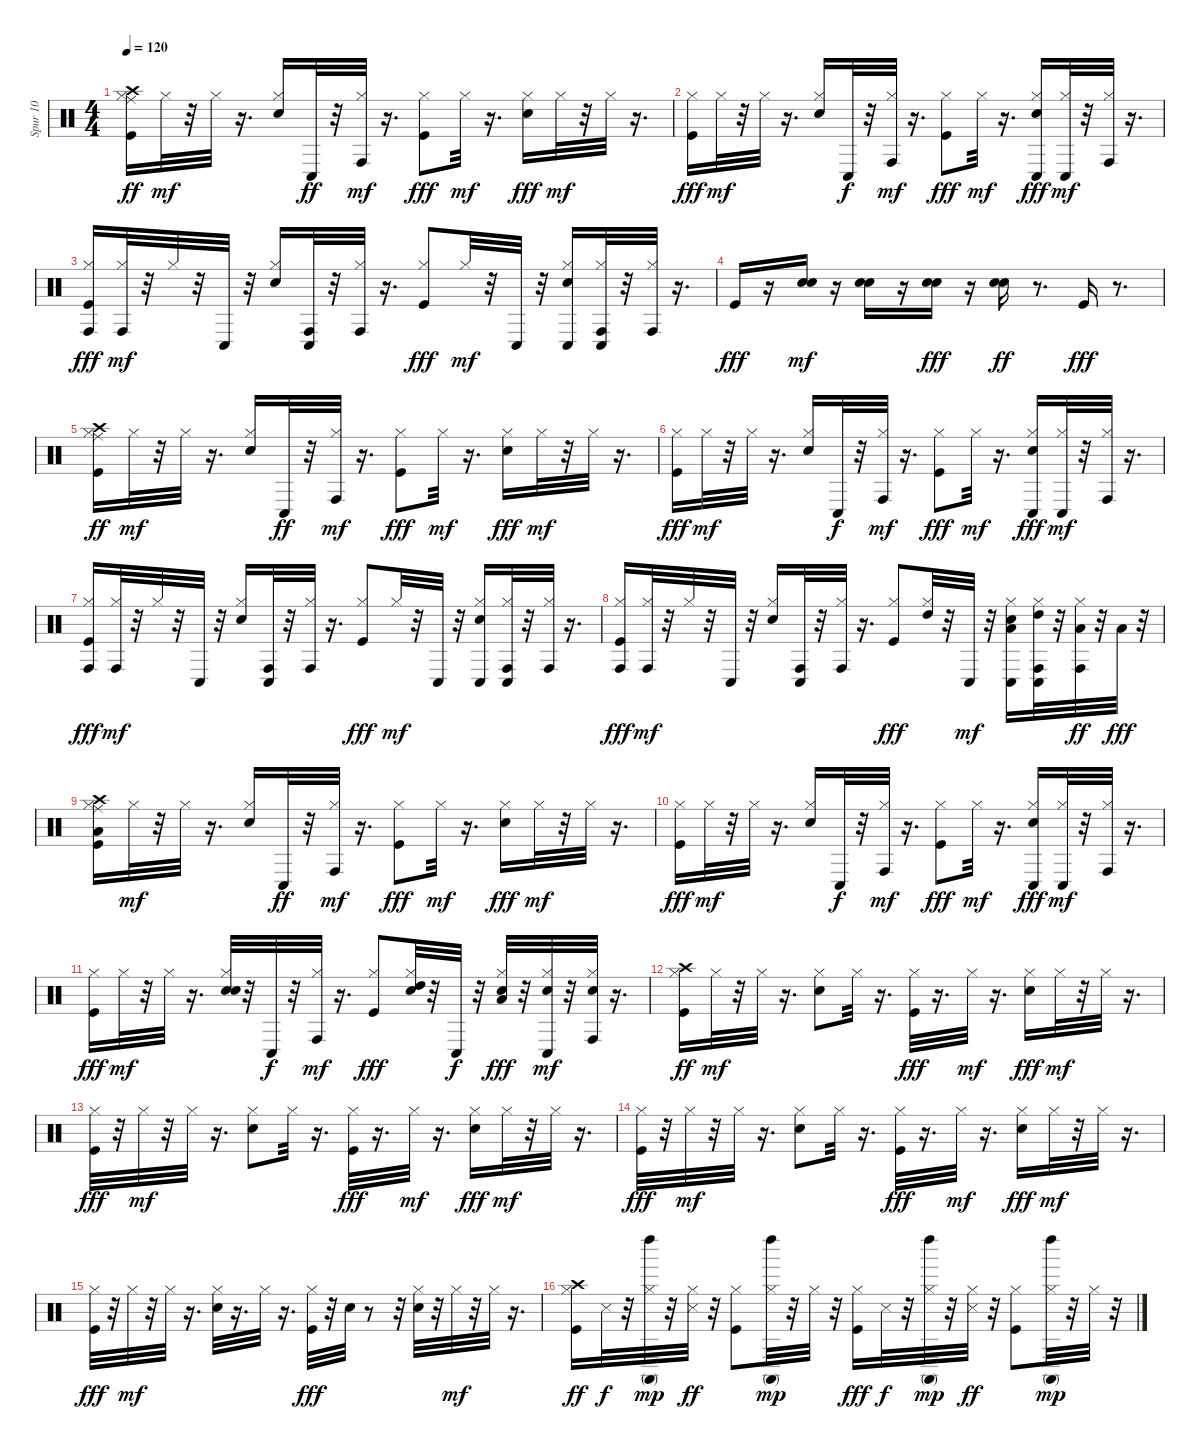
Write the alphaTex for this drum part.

\track ("Spur 10" "Spur 10") {instrument percussion}
\staff {score}
\articulation defaults
\ts (4 4)
\tempo 120
\clef neutral
\ks c
("Kick (hit)" "Hi-Hat (closed)" "Ride (middle)" "Crash high (hit)").16{dy ff} "Hi-Hat (closed)".32{dy mf} r.32 "Hi-Hat (closed)".32 r.16{d} ("Snare (hit) 2" "Hi-Hat (closed)").16 "Conga low (hit)".32{dy ff} r.32 ("Hi-Hat (closed)" "Conga high (hit)").32{dy mf} r.16{d} ("Kick (hit)" "Hi-Hat (closed)").8{dy fff} "Hi-Hat (closed)".32{dy mf} r.16{d} ("Snare (hit) 2" "Hi-Hat (closed)").16{dy fff} "Hi-Hat (closed)".32{dy mf} r.32 "Hi-Hat (closed)".32 r.16{d} |
("Kick (hit)" "Hi-Hat (closed)").16{dy fff} "Hi-Hat (closed)".32{dy mf} r.32 "Hi-Hat (closed)".32 r.16{d} ("Snare (hit) 2" "Hi-Hat (closed)").16 "Conga low (hit)".32{dy f} r.32 ("Hi-Hat (closed)" "Conga high (hit)").32{dy mf} r.16{d} ("Kick (hit)" "Hi-Hat (closed)").8{dy fff} "Hi-Hat (closed)".32{dy mf} r.16{d} ("Snare (hit) 2" "Hi-Hat (closed)" "Conga low (hit)").16{dy fff} ("Hi-Hat (closed)" "Conga low (hit)").32{dy mf} r.32 ("Hi-Hat (closed)" "Conga high (hit)").32 r.16{d} |
("Kick (hit)" "Hi-Hat (closed)" "Conga high (hit)").16{dy fff} ("Hi-Hat (closed)" "Conga high (hit)").32{dy mf} r.32 "Hi-Hat (closed)".32 r.32 "Conga low (hit)".32 r.32 ("Snare (hit) 2" "Hi-Hat (closed)").16 ("Conga high (hit)" "Conga low (hit)").32 r.32 ("Hi-Hat (closed)" "Conga high (hit)").32 r.16{d} ("Kick (hit)" "Hi-Hat (closed)").8{dy fff} "Hi-Hat (closed)".32{dy mf} r.32 "Conga low (hit)".32 r.32 ("Snare (hit) 2" "Hi-Hat (closed)" "Conga low (hit)").16 ("Hi-Hat (closed)" "Conga high (hit)" "Conga low (hit)").32 r.32 ("Hi-Hat (closed)" "Conga high (hit)").32 r.16{d} |
"Kick (hit)".16{dy fff} r.16 ("Snare (hit) 2" "Electric Snare (hit)").16{dy mf} r.16 ("Snare (hit) 2" "Electric Snare (hit)").16 r.16 ("Snare (hit) 2" "Electric Snare (hit)").16{dy fff} r.16 ("Snare (hit) 2" "Electric Snare (hit)").16{dy ff} r.8{d} "Kick (hit)".16{dy fff} r.8{d} |
("Kick (hit)" "Hi-Hat (closed)" "Ride (middle)" "Crash high (hit)").16{dy ff} "Hi-Hat (closed)".32{dy mf} r.32 "Hi-Hat (closed)".32 r.16{d} ("Snare (hit) 2" "Hi-Hat (closed)").16 "Conga low (hit)".32{dy ff} r.32 ("Hi-Hat (closed)" "Conga high (hit)").32{dy mf} r.16{d} ("Kick (hit)" "Hi-Hat (closed)").8{dy fff} "Hi-Hat (closed)".32{dy mf} r.16{d} ("Snare (hit) 2" "Hi-Hat (closed)").16{dy fff} "Hi-Hat (closed)".32{dy mf} r.32 "Hi-Hat (closed)".32 r.16{d} |
("Kick (hit)" "Hi-Hat (closed)").16{dy fff} "Hi-Hat (closed)".32{dy mf} r.32 "Hi-Hat (closed)".32 r.16{d} ("Snare (hit) 2" "Hi-Hat (closed)").16 "Conga low (hit)".32{dy f} r.32 ("Hi-Hat (closed)" "Conga high (hit)").32{dy mf} r.16{d} ("Kick (hit)" "Hi-Hat (closed)").8{dy fff} "Hi-Hat (closed)".32{dy mf} r.16{d} ("Snare (hit) 2" "Hi-Hat (closed)" "Conga low (hit)").16{dy fff} ("Hi-Hat (closed)" "Conga low (hit)").32{dy mf} r.32 ("Hi-Hat (closed)" "Conga high (hit)").32 r.16{d} |
("Kick (hit)" "Hi-Hat (closed)" "Conga high (hit)").16{dy fff} ("Hi-Hat (closed)" "Conga high (hit)").32{dy mf} r.32 "Hi-Hat (closed)".32 r.32 "Conga low (hit)".32 r.32 ("Snare (hit) 2" "Hi-Hat (closed)").16 ("Conga high (hit)" "Conga low (hit)").32 r.32 ("Hi-Hat (closed)" "Conga high (hit)").32 r.16{d} ("Kick (hit)" "Hi-Hat (closed)").8{dy fff} "Hi-Hat (closed)".32{dy mf} r.32 "Conga low (hit)".32 r.32 ("Snare (hit) 2" "Hi-Hat (closed)" "Conga low (hit)").16 ("Hi-Hat (closed)" "Conga high (hit)" "Conga low (hit)").32 r.32 ("Hi-Hat (closed)" "Conga high (hit)").32 r.16{d} |
("Kick (hit)" "Hi-Hat (closed)" "Conga high (hit)").16{dy fff} ("Hi-Hat (closed)" "Conga high (hit)").32{dy mf} r.32 "Hi-Hat (closed)".32 r.32 "Conga low (hit)".32 r.32 ("Snare (hit) 2" "Hi-Hat (closed)").16 ("Conga high (hit)" "Conga low (hit)").32 r.32 ("Hi-Hat (closed)" "Conga high (hit)").32 r.16{d} ("Kick (hit)" "Hi-Hat (closed)").8{dy fff} ("Hi-Hat (closed)" "High Tom (hit)").32 r.32 "Conga low (hit)".32{dy mf} r.32 ("Snare (hit) 2" "Hi-Hat (closed)" "Low Tom (hit)" "Conga low (hit)").16 ("Hi-Hat (closed)" "High Tom (hit)" "Conga high (hit)" "Conga low (hit)").32 r.32 ("Hi-Hat (closed)" "Low Tom (hit)" "Conga high (hit)").32{dy ff} r.32 "Low Tom (hit)".32{dy fff} r.32 |
("Kick (hit)" "Hi-Hat (closed)" "Ride (middle)" "Crash high (hit)" "Low Floor Tom (hit)").16 "Hi-Hat (closed)".32{dy mf} r.32 "Hi-Hat (closed)".32 r.16{d} ("Snare (hit) 2" "Hi-Hat (closed)").16 "Conga low (hit)".32{dy ff} r.32 ("Hi-Hat (closed)" "Conga high (hit)").32{dy mf} r.16{d} ("Kick (hit)" "Hi-Hat (closed)").8{dy fff} "Hi-Hat (closed)".32{dy mf} r.16{d} ("Snare (hit) 2" "Hi-Hat (closed)").16{dy fff} "Hi-Hat (closed)".32{dy mf} r.32 "Hi-Hat (closed)".32 r.16{d} |
("Kick (hit)" "Hi-Hat (closed)").16{dy fff} "Hi-Hat (closed)".32{dy mf} r.32 "Hi-Hat (closed)".32 r.16{d} ("Snare (hit) 2" "Hi-Hat (closed)").16 "Conga low (hit)".32{dy f} r.32 ("Hi-Hat (closed)" "Conga high (hit)").32{dy mf} r.16{d} ("Kick (hit)" "Hi-Hat (closed)").8{dy fff} "Hi-Hat (closed)".32{dy mf} r.16{d} ("Snare (hit) 2" "Hi-Hat (closed)" "Conga low (hit)").16{dy fff} ("Hi-Hat (closed)" "Conga low (hit)").32{dy mf} r.32 ("Hi-Hat (closed)" "Conga high (hit)").32 r.16{d} |
("Kick (hit)" "Hi-Hat (closed)").16{dy fff} "Hi-Hat (closed)".32{dy mf} r.32 "Hi-Hat (closed)".32 r.16{d} ("Snare (hit) 2" "Electric Snare (hit)" "Hi-Hat (closed)").32 r.32 "Conga low (hit)".32{dy f} r.32 ("Hi-Hat (closed)" "Conga high (hit)").32{dy mf} r.16{d} ("Kick (hit)" "Hi-Hat (closed)").8{dy fff} ("Electric Snare (hit)" "Hi-Hat (closed)" "High Tom (hit)").32 r.32 "Conga low (hit)".32{dy f} r.32 ("Snare (hit) 2" "Hi-Hat (closed)" "Low Floor Tom (hit)").32{dy fff} r.32 ("Snare (hit) 2" "Hi-Hat (closed)" "Conga low (hit)").32{dy mf} r.32 ("Snare (hit) 2" "Hi-Hat (closed)" "Conga high (hit)").32 r.16{d} |
("Kick (hit)" "Hi-Hat (closed)" "Crash high (hit)").16{dy ff} "Hi-Hat (closed)".32{dy mf} r.32 "Hi-Hat (closed)".32 r.16{d} ("Snare (hit) 2" "Hi-Hat (closed)").8 "Hi-Hat (closed)".32 r.16{d} ("Kick (hit)" "Hi-Hat (closed)").32{dy fff} r.16{d} "Hi-Hat (closed)".32{dy mf} r.16{d} ("Snare (hit) 2" "Hi-Hat (closed)").16{dy fff} "Hi-Hat (closed)".32{dy mf} r.32 "Hi-Hat (closed)".32 r.16{d} |
("Kick (hit)" "Hi-Hat (closed)").32{dy fff} r.32 "Hi-Hat (closed)".32{dy mf} r.32 "Hi-Hat (closed)".32 r.16{d} ("Snare (hit) 2" "Hi-Hat (closed)").8 "Hi-Hat (closed)".32 r.16{d} ("Kick (hit)" "Hi-Hat (closed)").32{dy fff} r.16{d} "Hi-Hat (closed)".32{dy mf} r.16{d} ("Snare (hit) 2" "Hi-Hat (closed)").16{dy fff} "Hi-Hat (closed)".32{dy mf} r.32 "Hi-Hat (closed)".32 r.16{d} |
("Kick (hit)" "Hi-Hat (closed)").32{dy fff} r.32 "Hi-Hat (closed)".32{dy mf} r.32 "Hi-Hat (closed)".32 r.16{d} ("Snare (hit) 2" "Hi-Hat (closed)").8 "Hi-Hat (closed)".32 r.16{d} ("Kick (hit)" "Hi-Hat (closed)").32{dy fff} r.16{d} "Hi-Hat (closed)".32{dy mf} r.16{d} ("Snare (hit) 2" "Hi-Hat (closed)").16{dy fff} "Hi-Hat (closed)".32{dy mf} r.32 "Hi-Hat (closed)".32 r.16{d} |
("Kick (hit)" "Hi-Hat (closed)").32{dy fff} r.32 "Hi-Hat (closed)".32{dy mf} r.32 "Hi-Hat (closed)".32 r.16{d} ("Snare (hit) 2" "Hi-Hat (closed)").32 r.16{d} "Hi-Hat (closed)".32 r.16{d} ("Kick (hit)" "Hi-Hat (closed)").32{dy fff} r.32 "Snare (hit) 2".32 r.8 r.32 ("Snare (hit) 2" "Hi-Hat (closed)").32 r.32 "Hi-Hat (closed)".32{dy mf} r.32 "Hi-Hat (closed)".32 r.16{d} |
("Kick (hit)" "Hi-Hat (closed)" "Crash high (hit)").16{dy ff} "Snare (side stick) 3".32{dy f} r.32 ("Hi-Hat (closed)" "Conga high (mute)" "Left Maraca (hit)").32{dy mp} r.32 ("Hi-Hat (closed)" "Snare (side stick) 3").32{dy ff} r.32 ("Kick (hit)" "Hi-Hat (closed)").8 ("Hi-Hat (closed)" "Conga high (mute)" "Left Maraca (hit)").32{dy mp} r.32 "Hi-Hat (closed)".32 r.32 ("Kick (hit)" "Hi-Hat (closed)").16{dy fff} "Snare (side stick) 3".32{dy f} r.32 ("Hi-Hat (closed)" "Conga high (mute)" "Left Maraca (hit)").32{dy mp} r.32 ("Hi-Hat (closed)" "Snare (side stick) 3").32{dy ff} r.32 ("Kick (hit)" "Hi-Hat (closed)").8 ("Hi-Hat (closed)" "Conga high (mute)" "Left Maraca (hit)").32{dy mp} r.32 "Hi-Hat (closed)".32 r.32
